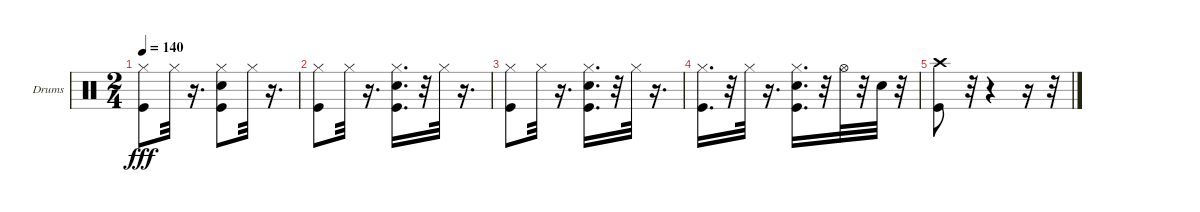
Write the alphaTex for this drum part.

\bracketExtendMode groupsimilarinstruments
\firstSystemTrackNameOrientation horizontal
\otherSystemsTrackNameOrientation horizontal
\track ("Ударные" "Drums") {instrument percussion}
\staff {score}
\articulation defaults
\ts (2 4)
\tempo 140
\clef neutral
\ks c
("Kick (hit)" "Hi-Hat (closed)").8{dy fff} "Hi-Hat (closed)".32 r.16{d} ("Snare (hit) 2" "Kick (hit)" "Hi-Hat (closed)").8 "Hi-Hat (closed)".32 r.16{d} |
("Kick (hit)" "Hi-Hat (closed)").8 "Hi-Hat (closed)".32 r.16{d} ("Snare (hit) 2" "Kick (hit)" "Hi-Hat (closed)").16{d} r.32 "Hi-Hat (closed)".32 r.16{d} |
("Kick (hit)" "Hi-Hat (closed)").8 "Hi-Hat (closed)".32 r.16{d} ("Kick (hit)" "Snare (hit) 2" "Hi-Hat (closed)").16{d} r.32 "Hi-Hat (closed)".32 r.16{d} |
("Kick (hit)" "Hi-Hat (closed)").16{d} r.32 "Hi-Hat (closed)".32 r.16{d} ("Snare (hit) 2" "Kick (hit)" "Hi-Hat (closed)").16{d} r.32 "Hi-Hat (open)".32 r.32 "Snare (hit) 2".32 r.32 |
("Crash high (hit)" "Kick (hit)").8 r.32 r.4 r.16 r.32
